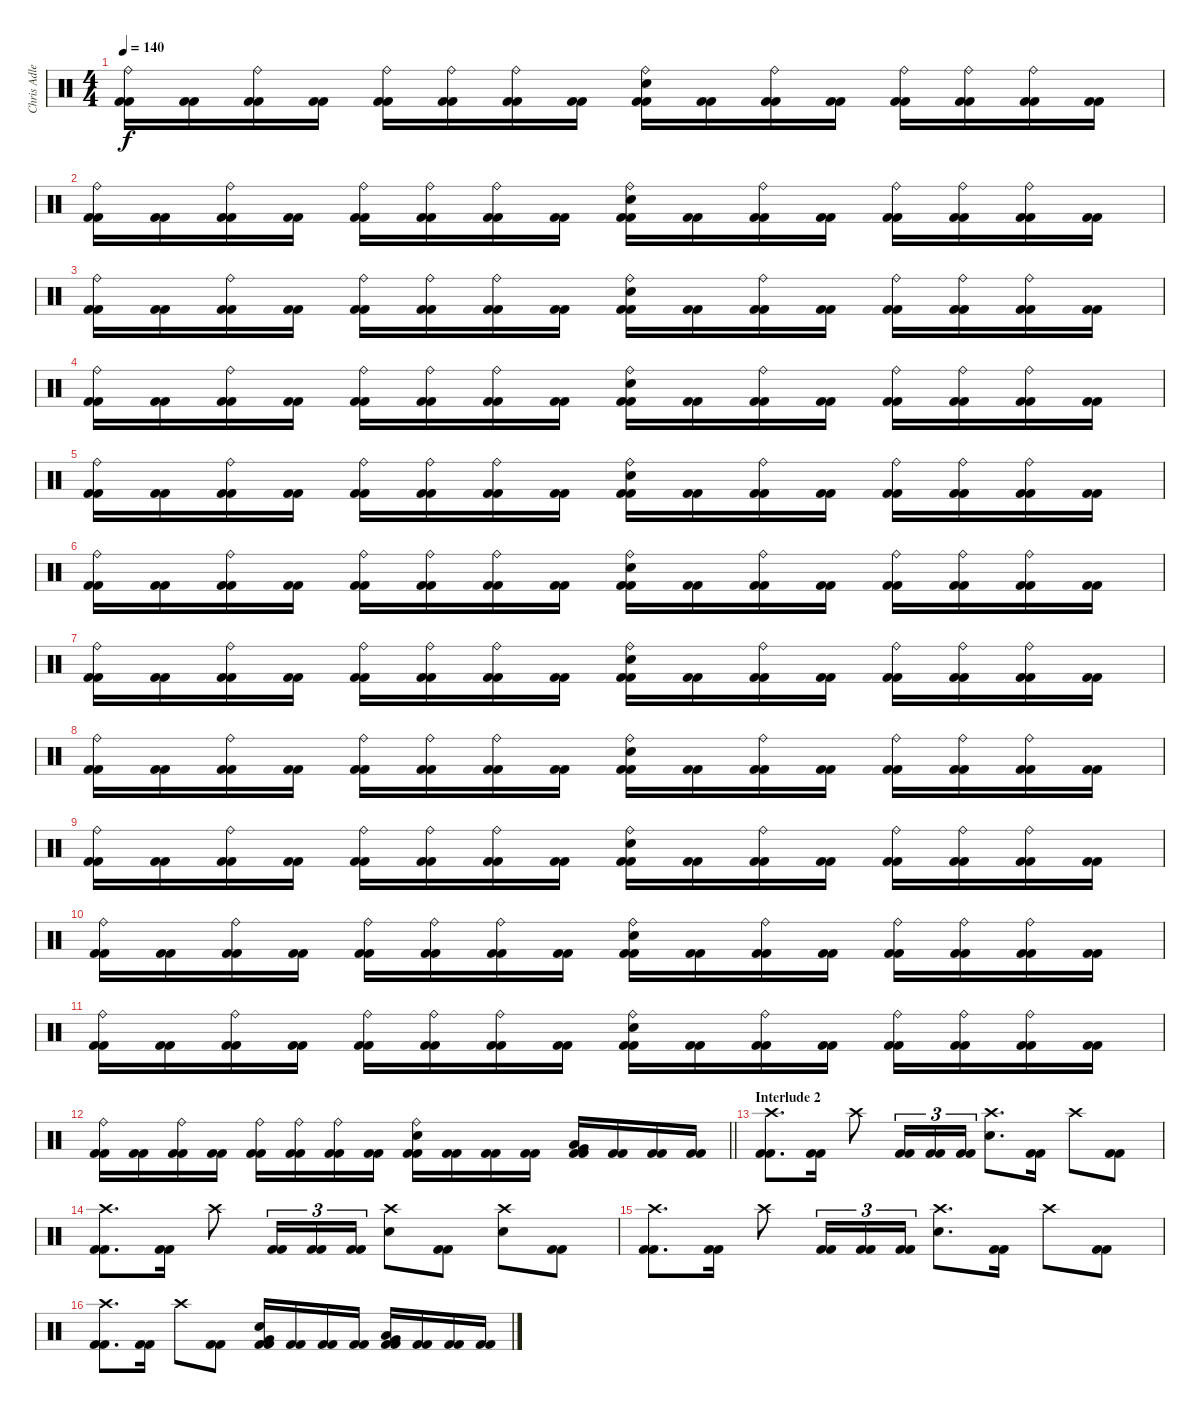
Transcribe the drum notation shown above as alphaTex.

\track ("Chris Adler" "Chris Adle") {instrument percussion}
\staff {score}
\articulation defaults
\ts (4 4)
\tempo 140
\clef neutral
\ks c
("Ride (bell)" "Kick (hit) 2" "Kick (hit) 2").16{dy f} ("Kick (hit) 2" "Kick (hit) 2").16 ("Ride (bell)" "Kick (hit) 2" "Kick (hit) 2").16 ("Kick (hit) 2" "Kick (hit) 2").16 ("Ride (bell)" "Kick (hit) 2" "Kick (hit) 2").16 ("Ride (bell)" "Kick (hit) 2" "Kick (hit) 2").16 ("Ride (bell)" "Kick (hit) 2" "Kick (hit) 2").16 ("Kick (hit) 2" "Kick (hit) 2").16 ("Ride (bell)" "Electric Snare (hit)" "Kick (hit) 2" "Kick (hit) 2").16 ("Kick (hit) 2" "Kick (hit) 2").16 ("Ride (bell)" "Kick (hit) 2" "Kick (hit) 2").16 ("Kick (hit) 2" "Kick (hit) 2").16 ("Ride (bell)" "Kick (hit) 2" "Kick (hit) 2").16 ("Ride (bell)" "Kick (hit) 2" "Kick (hit) 2").16 ("Ride (bell)" "Kick (hit) 2" "Kick (hit) 2").16 ("Kick (hit) 2" "Kick (hit) 2").16 |
("Ride (bell)" "Kick (hit) 2" "Kick (hit) 2").16 ("Kick (hit) 2" "Kick (hit) 2").16 ("Ride (bell)" "Kick (hit) 2" "Kick (hit) 2").16 ("Kick (hit) 2" "Kick (hit) 2").16 ("Ride (bell)" "Kick (hit) 2" "Kick (hit) 2").16 ("Ride (bell)" "Kick (hit) 2" "Kick (hit) 2").16 ("Ride (bell)" "Kick (hit) 2" "Kick (hit) 2").16 ("Kick (hit) 2" "Kick (hit) 2").16 ("Ride (bell)" "Electric Snare (hit)" "Kick (hit) 2" "Kick (hit) 2").16 ("Kick (hit) 2" "Kick (hit) 2").16 ("Ride (bell)" "Kick (hit) 2" "Kick (hit) 2").16 ("Kick (hit) 2" "Kick (hit) 2").16 ("Ride (bell)" "Kick (hit) 2" "Kick (hit) 2").16 ("Ride (bell)" "Kick (hit) 2" "Kick (hit) 2").16 ("Ride (bell)" "Kick (hit) 2" "Kick (hit) 2").16 ("Kick (hit) 2" "Kick (hit) 2").16 |
("Ride (bell)" "Kick (hit) 2" "Kick (hit) 2").16 ("Kick (hit) 2" "Kick (hit) 2").16 ("Ride (bell)" "Kick (hit) 2" "Kick (hit) 2").16 ("Kick (hit) 2" "Kick (hit) 2").16 ("Ride (bell)" "Kick (hit) 2" "Kick (hit) 2").16 ("Ride (bell)" "Kick (hit) 2" "Kick (hit) 2").16 ("Ride (bell)" "Kick (hit) 2" "Kick (hit) 2").16 ("Kick (hit) 2" "Kick (hit) 2").16 ("Ride (bell)" "Electric Snare (hit)" "Kick (hit) 2" "Kick (hit) 2").16 ("Kick (hit) 2" "Kick (hit) 2").16 ("Ride (bell)" "Kick (hit) 2" "Kick (hit) 2").16 ("Kick (hit) 2" "Kick (hit) 2").16 ("Ride (bell)" "Kick (hit) 2" "Kick (hit) 2").16 ("Ride (bell)" "Kick (hit) 2" "Kick (hit) 2").16 ("Ride (bell)" "Kick (hit) 2" "Kick (hit) 2").16 ("Kick (hit) 2" "Kick (hit) 2").16 |
("Ride (bell)" "Kick (hit) 2" "Kick (hit) 2").16 ("Kick (hit) 2" "Kick (hit) 2").16 ("Ride (bell)" "Kick (hit) 2" "Kick (hit) 2").16 ("Kick (hit) 2" "Kick (hit) 2").16 ("Ride (bell)" "Kick (hit) 2" "Kick (hit) 2").16 ("Ride (bell)" "Kick (hit) 2" "Kick (hit) 2").16 ("Ride (bell)" "Kick (hit) 2" "Kick (hit) 2").16 ("Kick (hit) 2" "Kick (hit) 2").16 ("Ride (bell)" "Electric Snare (hit)" "Kick (hit) 2" "Kick (hit) 2").16 ("Kick (hit) 2" "Kick (hit) 2").16 ("Ride (bell)" "Kick (hit) 2" "Kick (hit) 2").16 ("Kick (hit) 2" "Kick (hit) 2").16 ("Ride (bell)" "Kick (hit) 2" "Kick (hit) 2").16 ("Ride (bell)" "Kick (hit) 2" "Kick (hit) 2").16 ("Ride (bell)" "Kick (hit) 2" "Kick (hit) 2").16 ("Kick (hit) 2" "Kick (hit) 2").16 |
("Ride (bell)" "Kick (hit) 2" "Kick (hit) 2").16 ("Kick (hit) 2" "Kick (hit) 2").16 ("Ride (bell)" "Kick (hit) 2" "Kick (hit) 2").16 ("Kick (hit) 2" "Kick (hit) 2").16 ("Ride (bell)" "Kick (hit) 2" "Kick (hit) 2").16 ("Ride (bell)" "Kick (hit) 2" "Kick (hit) 2").16 ("Ride (bell)" "Kick (hit) 2" "Kick (hit) 2").16 ("Kick (hit) 2" "Kick (hit) 2").16 ("Ride (bell)" "Electric Snare (hit)" "Kick (hit) 2" "Kick (hit) 2").16 ("Kick (hit) 2" "Kick (hit) 2").16 ("Ride (bell)" "Kick (hit) 2" "Kick (hit) 2").16 ("Kick (hit) 2" "Kick (hit) 2").16 ("Ride (bell)" "Kick (hit) 2" "Kick (hit) 2").16 ("Ride (bell)" "Kick (hit) 2" "Kick (hit) 2").16 ("Ride (bell)" "Kick (hit) 2" "Kick (hit) 2").16 ("Kick (hit) 2" "Kick (hit) 2").16 |
("Ride (bell)" "Kick (hit) 2" "Kick (hit) 2").16 ("Kick (hit) 2" "Kick (hit) 2").16 ("Ride (bell)" "Kick (hit) 2" "Kick (hit) 2").16 ("Kick (hit) 2" "Kick (hit) 2").16 ("Ride (bell)" "Kick (hit) 2" "Kick (hit) 2").16 ("Ride (bell)" "Kick (hit) 2" "Kick (hit) 2").16 ("Ride (bell)" "Kick (hit) 2" "Kick (hit) 2").16 ("Kick (hit) 2" "Kick (hit) 2").16 ("Ride (bell)" "Electric Snare (hit)" "Kick (hit) 2" "Kick (hit) 2").16 ("Kick (hit) 2" "Kick (hit) 2").16 ("Ride (bell)" "Kick (hit) 2" "Kick (hit) 2").16 ("Kick (hit) 2" "Kick (hit) 2").16 ("Ride (bell)" "Kick (hit) 2" "Kick (hit) 2").16 ("Ride (bell)" "Kick (hit) 2" "Kick (hit) 2").16 ("Ride (bell)" "Kick (hit) 2" "Kick (hit) 2").16 ("Kick (hit) 2" "Kick (hit) 2").16 |
("Ride (bell)" "Kick (hit) 2" "Kick (hit) 2").16 ("Kick (hit) 2" "Kick (hit) 2").16 ("Ride (bell)" "Kick (hit) 2" "Kick (hit) 2").16 ("Kick (hit) 2" "Kick (hit) 2").16 ("Ride (bell)" "Kick (hit) 2" "Kick (hit) 2").16 ("Ride (bell)" "Kick (hit) 2" "Kick (hit) 2").16 ("Ride (bell)" "Kick (hit) 2" "Kick (hit) 2").16 ("Kick (hit) 2" "Kick (hit) 2").16 ("Ride (bell)" "Electric Snare (hit)" "Kick (hit) 2" "Kick (hit) 2").16 ("Kick (hit) 2" "Kick (hit) 2").16 ("Ride (bell)" "Kick (hit) 2" "Kick (hit) 2").16 ("Kick (hit) 2" "Kick (hit) 2").16 ("Ride (bell)" "Kick (hit) 2" "Kick (hit) 2").16 ("Ride (bell)" "Kick (hit) 2" "Kick (hit) 2").16 ("Ride (bell)" "Kick (hit) 2" "Kick (hit) 2").16 ("Kick (hit) 2" "Kick (hit) 2").16 |
("Ride (bell)" "Kick (hit) 2" "Kick (hit) 2").16 ("Kick (hit) 2" "Kick (hit) 2").16 ("Ride (bell)" "Kick (hit) 2" "Kick (hit) 2").16 ("Kick (hit) 2" "Kick (hit) 2").16 ("Ride (bell)" "Kick (hit) 2" "Kick (hit) 2").16 ("Ride (bell)" "Kick (hit) 2" "Kick (hit) 2").16 ("Ride (bell)" "Kick (hit) 2" "Kick (hit) 2").16 ("Kick (hit) 2" "Kick (hit) 2").16 ("Ride (bell)" "Electric Snare (hit)" "Kick (hit) 2" "Kick (hit) 2").16 ("Kick (hit) 2" "Kick (hit) 2").16 ("Ride (bell)" "Kick (hit) 2" "Kick (hit) 2").16 ("Kick (hit) 2" "Kick (hit) 2").16 ("Ride (bell)" "Kick (hit) 2" "Kick (hit) 2").16 ("Ride (bell)" "Kick (hit) 2" "Kick (hit) 2").16 ("Ride (bell)" "Kick (hit) 2" "Kick (hit) 2").16 ("Kick (hit) 2" "Kick (hit) 2").16 |
("Ride (bell)" "Kick (hit) 2" "Kick (hit) 2").16 ("Kick (hit) 2" "Kick (hit) 2").16 ("Ride (bell)" "Kick (hit) 2" "Kick (hit) 2").16 ("Kick (hit) 2" "Kick (hit) 2").16 ("Ride (bell)" "Kick (hit) 2" "Kick (hit) 2").16 ("Ride (bell)" "Kick (hit) 2" "Kick (hit) 2").16 ("Ride (bell)" "Kick (hit) 2" "Kick (hit) 2").16 ("Kick (hit) 2" "Kick (hit) 2").16 ("Ride (bell)" "Electric Snare (hit)" "Kick (hit) 2" "Kick (hit) 2").16 ("Kick (hit) 2" "Kick (hit) 2").16 ("Ride (bell)" "Kick (hit) 2" "Kick (hit) 2").16 ("Kick (hit) 2" "Kick (hit) 2").16 ("Ride (bell)" "Kick (hit) 2" "Kick (hit) 2").16 ("Ride (bell)" "Kick (hit) 2" "Kick (hit) 2").16 ("Ride (bell)" "Kick (hit) 2" "Kick (hit) 2").16 ("Kick (hit) 2" "Kick (hit) 2").16 |
("Ride (bell)" "Kick (hit) 2" "Kick (hit) 2").16 ("Kick (hit) 2" "Kick (hit) 2").16 ("Ride (bell)" "Kick (hit) 2" "Kick (hit) 2").16 ("Kick (hit) 2" "Kick (hit) 2").16 ("Ride (bell)" "Kick (hit) 2" "Kick (hit) 2").16 ("Ride (bell)" "Kick (hit) 2" "Kick (hit) 2").16 ("Ride (bell)" "Kick (hit) 2" "Kick (hit) 2").16 ("Kick (hit) 2" "Kick (hit) 2").16 ("Ride (bell)" "Electric Snare (hit)" "Kick (hit) 2" "Kick (hit) 2").16 ("Kick (hit) 2" "Kick (hit) 2").16 ("Ride (bell)" "Kick (hit) 2" "Kick (hit) 2").16 ("Kick (hit) 2" "Kick (hit) 2").16 ("Ride (bell)" "Kick (hit) 2" "Kick (hit) 2").16 ("Ride (bell)" "Kick (hit) 2" "Kick (hit) 2").16 ("Ride (bell)" "Kick (hit) 2" "Kick (hit) 2").16 ("Kick (hit) 2" "Kick (hit) 2").16 |
("Ride (bell)" "Kick (hit) 2" "Kick (hit) 2").16 ("Kick (hit) 2" "Kick (hit) 2").16 ("Ride (bell)" "Kick (hit) 2" "Kick (hit) 2").16 ("Kick (hit) 2" "Kick (hit) 2").16 ("Ride (bell)" "Kick (hit) 2" "Kick (hit) 2").16 ("Ride (bell)" "Kick (hit) 2" "Kick (hit) 2").16 ("Ride (bell)" "Kick (hit) 2" "Kick (hit) 2").16 ("Kick (hit) 2" "Kick (hit) 2").16 ("Ride (bell)" "Electric Snare (hit)" "Kick (hit) 2" "Kick (hit) 2").16 ("Kick (hit) 2" "Kick (hit) 2").16 ("Ride (bell)" "Kick (hit) 2" "Kick (hit) 2").16 ("Kick (hit) 2" "Kick (hit) 2").16 ("Ride (bell)" "Kick (hit) 2" "Kick (hit) 2").16 ("Ride (bell)" "Kick (hit) 2" "Kick (hit) 2").16 ("Ride (bell)" "Kick (hit) 2" "Kick (hit) 2").16 ("Kick (hit) 2" "Kick (hit) 2").16 |
\barLineRight lightlight
("Ride (bell)" "Kick (hit) 2" "Kick (hit) 2").16 ("Kick (hit) 2" "Kick (hit) 2").16 ("Ride (bell)" "Kick (hit) 2" "Kick (hit) 2").16 ("Kick (hit) 2" "Kick (hit) 2").16 ("Ride (bell)" "Kick (hit) 2" "Kick (hit) 2").16 ("Ride (bell)" "Kick (hit) 2" "Kick (hit) 2").16 ("Ride (bell)" "Kick (hit) 2" "Kick (hit) 2").16 ("Kick (hit) 2" "Kick (hit) 2").16 ("Ride (bell)" "Electric Snare (hit)" "Kick (hit) 2" "Kick (hit) 2").16 ("Kick (hit) 2" "Kick (hit) 2").16 ("Kick (hit) 2" "Kick (hit) 2").16 ("Kick (hit) 2" "Kick (hit) 2").16 ("Very Low Tom (hit)" "Low Floor Tom (hit)" "Kick (hit) 2" "Kick (hit) 2").16 ("Kick (hit) 2" "Kick (hit) 2").16 ("Kick (hit) 2" "Kick (hit) 2").16 ("Kick (hit) 2" "Kick (hit) 2").16 |
\section ("" "Interlude 2")
("Crash high (hit)" "Kick (hit) 2" "Kick (hit) 2").8{d} ("Kick (hit) 2" "Kick (hit) 2").16 "Crash high (hit)".8 ("Kick (hit) 2" "Kick (hit) 2").16{tu (3 2)} ("Kick (hit) 2" "Kick (hit) 2").16{tu (3 2)} ("Kick (hit) 2" "Kick (hit) 2").16{tu (3 2)} ("Crash high (hit)" "Electric Snare (hit)").8{d} ("Kick (hit) 2" "Kick (hit) 2").16 "Crash high (hit)".8 ("Kick (hit) 2" "Kick (hit) 2").8 |
("Crash high (hit)" "Kick (hit) 2" "Kick (hit) 2").8{d} ("Kick (hit) 2" "Kick (hit) 2").16 "Crash high (hit)".8 ("Kick (hit) 2" "Kick (hit) 2").16{tu (3 2)} ("Kick (hit) 2" "Kick (hit) 2").16{tu (3 2)} ("Kick (hit) 2" "Kick (hit) 2").16{tu (3 2)} ("Crash high (hit)" "Electric Snare (hit)").8 ("Kick (hit) 2" "Kick (hit) 2").8 ("Crash high (hit)" "Electric Snare (hit)").8 ("Kick (hit) 2" "Kick (hit) 2").8 |
("Crash high (hit)" "Kick (hit) 2" "Kick (hit) 2").8{d} ("Kick (hit) 2" "Kick (hit) 2").16 "Crash high (hit)".8 ("Kick (hit) 2" "Kick (hit) 2").16{tu (3 2)} ("Kick (hit) 2" "Kick (hit) 2").16{tu (3 2)} ("Kick (hit) 2" "Kick (hit) 2").16{tu (3 2)} ("Crash high (hit)" "Electric Snare (hit)").8{d} ("Kick (hit) 2" "Kick (hit) 2").16 "Crash high (hit)".8 ("Kick (hit) 2" "Kick (hit) 2").8 |
("Crash high (hit)" "Kick (hit) 2" "Kick (hit) 2").8{d} ("Kick (hit) 2" "Kick (hit) 2").16 "Crash high (hit)".8 ("Kick (hit) 2" "Kick (hit) 2").8 ("Very Low Tom (hit)" "Electric Snare (hit)" "Kick (hit) 2" "Kick (hit) 2").16 ("Kick (hit) 2" "Kick (hit) 2").16 ("Kick (hit) 2" "Kick (hit) 2").16 ("Kick (hit) 2" "Kick (hit) 2").16 ("Low Tom (hit)" "Very Low Tom (hit)" "Kick (hit) 2" "Kick (hit) 2").16 ("Kick (hit) 2" "Kick (hit) 2").16 ("Kick (hit) 2" "Kick (hit) 2").16 ("Kick (hit) 2" "Kick (hit) 2").16
